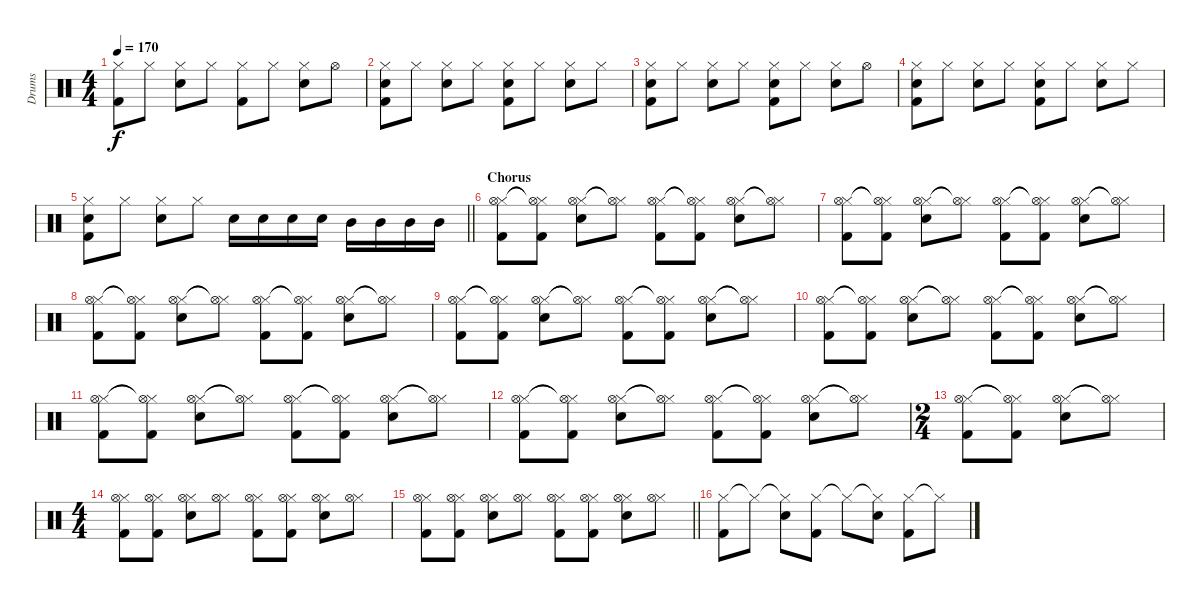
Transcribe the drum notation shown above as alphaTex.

\track ("Drums" "Drums") {instrument percussion}
\staff {score}
\articulation defaults
\ts (4 4)
\tempo 170
\clef neutral
\ks c
("Hi-Hat (closed)" "Kick (hit) 2").8{dy f} "Hi-Hat (closed)".8 ("Hi-Hat (closed)" "Snare (hit) 2").8 "Hi-Hat (closed)".8 ("Hi-Hat (closed)" "Kick (hit) 2").8 "Hi-Hat (closed)".8 ("Hi-Hat (closed)" "Snare (hit) 2").8 "Hi-Hat (open)".8 |
("Hi-Hat (closed)" "Snare (hit) 2" "Kick (hit) 2").8 "Hi-Hat (closed)".8 ("Hi-Hat (closed)" "Snare (hit) 2").8 "Hi-Hat (closed)".8 ("Hi-Hat (closed)" "Snare (hit) 2" "Kick (hit) 2").8 "Hi-Hat (closed)".8 ("Hi-Hat (closed)" "Snare (hit) 2").8 "Hi-Hat (closed)".8 |
("Hi-Hat (closed)" "Snare (hit) 2" "Kick (hit) 2").8 "Hi-Hat (closed)".8 ("Hi-Hat (closed)" "Snare (hit) 2").8 "Hi-Hat (closed)".8 ("Hi-Hat (closed)" "Snare (hit) 2" "Kick (hit) 2").8 "Hi-Hat (closed)".8 ("Hi-Hat (closed)" "Snare (hit) 2").8 "Hi-Hat (open)".8 |
("Hi-Hat (closed)" "Snare (hit) 2" "Kick (hit) 2").8 "Hi-Hat (closed)".8 ("Hi-Hat (closed)" "Snare (hit) 2").8 "Hi-Hat (closed)".8 ("Hi-Hat (closed)" "Snare (hit) 2" "Kick (hit) 2").8 "Hi-Hat (closed)".8 ("Hi-Hat (closed)" "Snare (hit) 2").8 "Hi-Hat (closed)".8 |
\barLineRight lightlight
("Hi-Hat (closed)" "Snare (hit) 2" "Kick (hit) 2").8 "Hi-Hat (closed)".8 ("Hi-Hat (closed)" "Snare (hit) 2").8 "Hi-Hat (closed)".8 "Snare (hit) 2".16 "Snare (hit) 2".16 "Snare (hit) 2".16 "Snare (hit) 2".16 "Mid Tom (hit)".16 "Mid Tom (hit)".16 "Mid Tom (hit)".16 "Mid Tom (hit)".16 |
\section ("" "Chorus")
("Hi-Hat (closed)" "Hi-Hat (open)" "Kick (hit) 2").8 ("Hi-Hat (closed)"{t} "Hi-Hat (open)"{t} "Kick (hit) 2").8 ("Hi-Hat (closed)" "Hi-Hat (open)" "Snare (hit) 2").8 ("Hi-Hat (closed)"{t} "Hi-Hat (open)"{t}).8 ("Hi-Hat (closed)" "Hi-Hat (open)" "Kick (hit) 2").8 ("Hi-Hat (closed)"{t} "Hi-Hat (open)"{t} "Kick (hit) 2").8 ("Hi-Hat (closed)" "Hi-Hat (open)" "Snare (hit) 2").8 ("Hi-Hat (closed)"{t} "Hi-Hat (open)"{t}).8 |
("Hi-Hat (closed)" "Hi-Hat (open)" "Kick (hit) 2").8 ("Hi-Hat (closed)"{t} "Hi-Hat (open)"{t} "Kick (hit) 2").8 ("Hi-Hat (closed)" "Hi-Hat (open)" "Snare (hit) 2").8 ("Hi-Hat (closed)"{t} "Hi-Hat (open)"{t}).8 ("Hi-Hat (closed)" "Hi-Hat (open)" "Kick (hit) 2").8 ("Hi-Hat (closed)"{t} "Hi-Hat (open)"{t} "Kick (hit) 2").8 ("Hi-Hat (closed)" "Hi-Hat (open)" "Snare (hit) 2").8 ("Hi-Hat (closed)"{t} "Hi-Hat (open)"{t}).8 |
("Hi-Hat (closed)" "Hi-Hat (open)" "Kick (hit) 2").8 ("Hi-Hat (closed)"{t} "Hi-Hat (open)"{t} "Kick (hit) 2").8 ("Hi-Hat (closed)" "Hi-Hat (open)" "Snare (hit) 2").8 ("Hi-Hat (closed)"{t} "Hi-Hat (open)"{t}).8 ("Hi-Hat (closed)" "Hi-Hat (open)" "Kick (hit) 2").8 ("Hi-Hat (closed)"{t} "Hi-Hat (open)"{t} "Kick (hit) 2").8 ("Hi-Hat (closed)" "Hi-Hat (open)" "Snare (hit) 2").8 ("Hi-Hat (closed)"{t} "Hi-Hat (open)"{t}).8 |
("Hi-Hat (closed)" "Hi-Hat (open)" "Kick (hit) 2").8 ("Hi-Hat (closed)"{t} "Hi-Hat (open)"{t} "Kick (hit) 2").8 ("Hi-Hat (closed)" "Hi-Hat (open)" "Snare (hit) 2").8 ("Hi-Hat (closed)"{t} "Hi-Hat (open)"{t}).8 ("Hi-Hat (closed)" "Hi-Hat (open)" "Kick (hit) 2").8 ("Hi-Hat (closed)"{t} "Hi-Hat (open)"{t} "Kick (hit) 2").8 ("Hi-Hat (closed)" "Hi-Hat (open)" "Snare (hit) 2").8 ("Hi-Hat (closed)"{t} "Hi-Hat (open)"{t}).8 |
("Hi-Hat (closed)" "Hi-Hat (open)" "Kick (hit) 2").8 ("Hi-Hat (closed)"{t} "Hi-Hat (open)"{t} "Kick (hit) 2").8 ("Hi-Hat (closed)" "Hi-Hat (open)" "Snare (hit) 2").8 ("Hi-Hat (closed)"{t} "Hi-Hat (open)"{t}).8 ("Hi-Hat (closed)" "Hi-Hat (open)" "Kick (hit) 2").8 ("Hi-Hat (closed)"{t} "Hi-Hat (open)"{t} "Kick (hit) 2").8 ("Hi-Hat (closed)" "Hi-Hat (open)" "Snare (hit) 2").8 ("Hi-Hat (closed)"{t} "Hi-Hat (open)"{t}).8 |
("Hi-Hat (closed)" "Hi-Hat (open)" "Kick (hit) 2").8 ("Hi-Hat (closed)"{t} "Hi-Hat (open)"{t} "Kick (hit) 2").8 ("Hi-Hat (closed)" "Hi-Hat (open)" "Snare (hit) 2").8 ("Hi-Hat (closed)"{t} "Hi-Hat (open)"{t}).8 ("Hi-Hat (closed)" "Hi-Hat (open)" "Kick (hit) 2").8 ("Hi-Hat (closed)"{t} "Hi-Hat (open)"{t} "Kick (hit) 2").8 ("Hi-Hat (closed)" "Hi-Hat (open)" "Snare (hit) 2").8 ("Hi-Hat (closed)"{t} "Hi-Hat (open)"{t}).8 |
("Hi-Hat (closed)" "Hi-Hat (open)" "Kick (hit) 2").8 ("Hi-Hat (closed)"{t} "Hi-Hat (open)"{t} "Kick (hit) 2").8 ("Hi-Hat (closed)" "Hi-Hat (open)" "Snare (hit) 2").8 ("Hi-Hat (closed)"{t} "Hi-Hat (open)"{t}).8 ("Hi-Hat (closed)" "Hi-Hat (open)" "Kick (hit) 2").8 ("Hi-Hat (closed)"{t} "Hi-Hat (open)"{t} "Kick (hit) 2").8 ("Hi-Hat (closed)" "Hi-Hat (open)" "Snare (hit) 2").8 ("Hi-Hat (closed)"{t} "Hi-Hat (open)"{t}).8 |
\ts (2 4)
("Hi-Hat (closed)" "Hi-Hat (open)" "Kick (hit) 2").8 ("Hi-Hat (closed)"{t} "Hi-Hat (open)"{t} "Kick (hit) 2").8 ("Hi-Hat (closed)" "Hi-Hat (open)" "Snare (hit) 2").8 ("Hi-Hat (closed)"{t} "Hi-Hat (open)"{t}).8 |
\ts (4 4)
("Hi-Hat (closed)" "Hi-Hat (open)" "Kick (hit) 2").8 ("Hi-Hat (closed)" "Hi-Hat (open)" "Kick (hit) 2").8 ("Hi-Hat (closed)" "Hi-Hat (open)" "Snare (hit) 2").8 ("Hi-Hat (closed)" "Hi-Hat (open)").8 ("Hi-Hat (closed)" "Hi-Hat (open)" "Kick (hit) 2").8 ("Hi-Hat (closed)" "Hi-Hat (open)" "Kick (hit) 2").8 ("Hi-Hat (closed)" "Hi-Hat (open)" "Snare (hit) 2").8 ("Hi-Hat (closed)" "Hi-Hat (open)").8 |
\barLineRight lightlight
("Hi-Hat (closed)" "Hi-Hat (open)" "Kick (hit) 2").8 ("Hi-Hat (closed)" "Hi-Hat (open)" "Kick (hit) 2").8 ("Hi-Hat (closed)" "Hi-Hat (open)" "Snare (hit) 2").8 ("Hi-Hat (closed)" "Hi-Hat (open)").8 ("Hi-Hat (closed)" "Hi-Hat (open)" "Kick (hit) 2").8 ("Hi-Hat (closed)" "Hi-Hat (open)" "Kick (hit) 2").8 ("Hi-Hat (closed)" "Hi-Hat (open)" "Snare (hit) 2").8 ("Hi-Hat (closed)" "Hi-Hat (open)").8 |
("Hi-Hat (closed)" "Kick (hit) 2").8 "Hi-Hat (closed)"{t}.8 ("Hi-Hat (closed)"{t} "Snare (hit) 2").8 ("Hi-Hat (closed)" "Kick (hit) 2").8 "Hi-Hat (closed)"{t}.8 ("Hi-Hat (closed)"{t} "Snare (hit) 2").8 ("Hi-Hat (closed)" "Kick (hit) 2").8 "Hi-Hat (closed)"{t}.8
